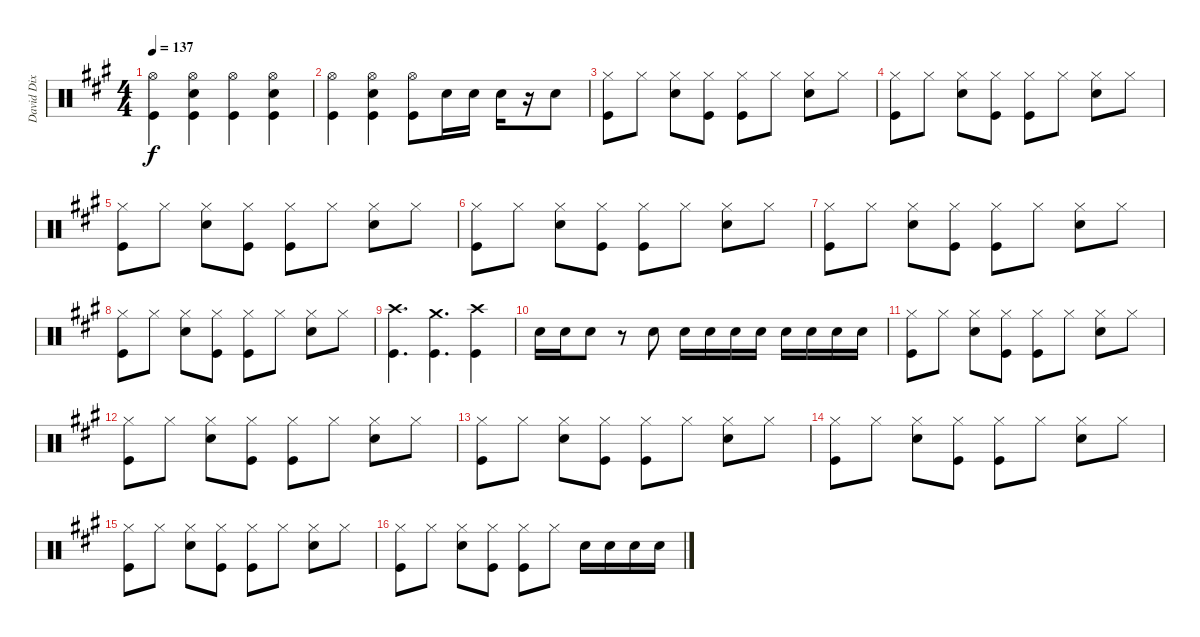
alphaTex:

\track ("David Dix Drums" "David Dix ") {instrument percussion}
\staff {score}
\articulation defaults
\ts (4 4)
\tempo 137
\clef neutral
\ks a
("Hi-Hat (open)" "Kick (hit)").4{dy f} ("Hi-Hat (open)" "Snare (hit) 2" "Kick (hit)").4 ("Hi-Hat (open)" "Kick (hit)").4 ("Hi-Hat (open)" "Snare (hit) 2" "Kick (hit)").4 |
("Hi-Hat (open)" "Kick (hit)").4 ("Hi-Hat (open)" "Snare (hit) 2" "Kick (hit)").4 ("Hi-Hat (open)" "Kick (hit)").8 "Snare (hit) 2".16 "Snare (hit) 2".16 "Snare (hit) 2".16 r.16 "Snare (hit) 2".8 |
("Hi-Hat (closed)" "Kick (hit)").8 "Hi-Hat (closed)".8 ("Hi-Hat (closed)" "Snare (hit) 2").8 ("Hi-Hat (closed)" "Kick (hit)").8 ("Hi-Hat (closed)" "Kick (hit)").8 "Hi-Hat (closed)".8 ("Hi-Hat (closed)" "Snare (hit) 2").8 "Hi-Hat (closed)".8 |
("Hi-Hat (closed)" "Kick (hit)").8 "Hi-Hat (closed)".8 ("Hi-Hat (closed)" "Snare (hit) 2").8 ("Hi-Hat (closed)" "Kick (hit)").8 ("Hi-Hat (closed)" "Kick (hit)").8 "Hi-Hat (closed)".8 ("Hi-Hat (closed)" "Snare (hit) 2").8 "Hi-Hat (closed)".8 |
("Hi-Hat (closed)" "Kick (hit)").8 "Hi-Hat (closed)".8 ("Hi-Hat (closed)" "Snare (hit) 2").8 ("Hi-Hat (closed)" "Kick (hit)").8 ("Hi-Hat (closed)" "Kick (hit)").8 "Hi-Hat (closed)".8 ("Hi-Hat (closed)" "Snare (hit) 2").8 "Hi-Hat (closed)".8 |
("Hi-Hat (closed)" "Kick (hit)").8 "Hi-Hat (closed)".8 ("Hi-Hat (closed)" "Snare (hit) 2").8 ("Hi-Hat (closed)" "Kick (hit)").8 ("Hi-Hat (closed)" "Kick (hit)").8 "Hi-Hat (closed)".8 ("Hi-Hat (closed)" "Snare (hit) 2").8 "Hi-Hat (closed)".8 |
("Hi-Hat (closed)" "Kick (hit)").8 "Hi-Hat (closed)".8 ("Hi-Hat (closed)" "Snare (hit) 2").8 ("Hi-Hat (closed)" "Kick (hit)").8 ("Hi-Hat (closed)" "Kick (hit)").8 "Hi-Hat (closed)".8 ("Hi-Hat (closed)" "Snare (hit) 2").8 "Hi-Hat (closed)".8 |
("Hi-Hat (closed)" "Kick (hit)").8 "Hi-Hat (closed)".8 ("Hi-Hat (closed)" "Snare (hit) 2").8 ("Hi-Hat (closed)" "Kick (hit)").8 ("Hi-Hat (closed)" "Kick (hit)").8 "Hi-Hat (closed)".8 ("Hi-Hat (closed)" "Snare (hit) 2").8 "Hi-Hat (closed)".8 |
("Crash high (hit)" "Kick (hit)").4{d} ("Crash medium (hit)" "Kick (hit)").4{d} ("Crash high (hit)" "Kick (hit)").4 |
"Snare (hit) 2".16 "Snare (hit) 2".16 "Snare (hit) 2".8 r.8 "Snare (hit) 2".8 "Snare (hit) 2".16 "Snare (hit) 2".16 "Snare (hit) 2".16 "Snare (hit) 2".16 "Snare (hit) 2".16 "Snare (hit) 2".16 "Snare (hit) 2".16 "Snare (hit) 2".16 |
("Hi-Hat (closed)" "Kick (hit)").8 "Hi-Hat (closed)".8 ("Hi-Hat (closed)" "Snare (hit) 2").8 ("Hi-Hat (closed)" "Kick (hit)").8 ("Hi-Hat (closed)" "Kick (hit)").8 "Hi-Hat (closed)".8 ("Hi-Hat (closed)" "Snare (hit) 2").8 "Hi-Hat (closed)".8 |
("Hi-Hat (closed)" "Kick (hit)").8 "Hi-Hat (closed)".8 ("Hi-Hat (closed)" "Snare (hit) 2").8 ("Hi-Hat (closed)" "Kick (hit)").8 ("Hi-Hat (closed)" "Kick (hit)").8 "Hi-Hat (closed)".8 ("Hi-Hat (closed)" "Snare (hit) 2").8 "Hi-Hat (closed)".8 |
("Hi-Hat (closed)" "Kick (hit)").8 "Hi-Hat (closed)".8 ("Hi-Hat (closed)" "Snare (hit) 2").8 ("Hi-Hat (closed)" "Kick (hit)").8 ("Hi-Hat (closed)" "Kick (hit)").8 "Hi-Hat (closed)".8 ("Hi-Hat (closed)" "Snare (hit) 2").8 "Hi-Hat (closed)".8 |
("Hi-Hat (closed)" "Kick (hit)").8 "Hi-Hat (closed)".8 ("Hi-Hat (closed)" "Snare (hit) 2").8 ("Hi-Hat (closed)" "Kick (hit)").8 ("Hi-Hat (closed)" "Kick (hit)").8 "Hi-Hat (closed)".8 ("Hi-Hat (closed)" "Snare (hit) 2").8 "Hi-Hat (closed)".8 |
("Hi-Hat (closed)" "Kick (hit)").8 "Hi-Hat (closed)".8 ("Hi-Hat (closed)" "Snare (hit) 2").8 ("Hi-Hat (closed)" "Kick (hit)").8 ("Hi-Hat (closed)" "Kick (hit)").8 "Hi-Hat (closed)".8 ("Hi-Hat (closed)" "Snare (hit) 2").8 "Hi-Hat (closed)".8 |
("Hi-Hat (closed)" "Kick (hit)").8 "Hi-Hat (closed)".8 ("Hi-Hat (closed)" "Snare (hit) 2").8 ("Hi-Hat (closed)" "Kick (hit)").8 ("Hi-Hat (closed)" "Kick (hit)").8 "Hi-Hat (closed)".8 "Snare (hit) 2".16 "Snare (hit) 2".16 "Snare (hit) 2".16 "Snare (hit) 2".16
